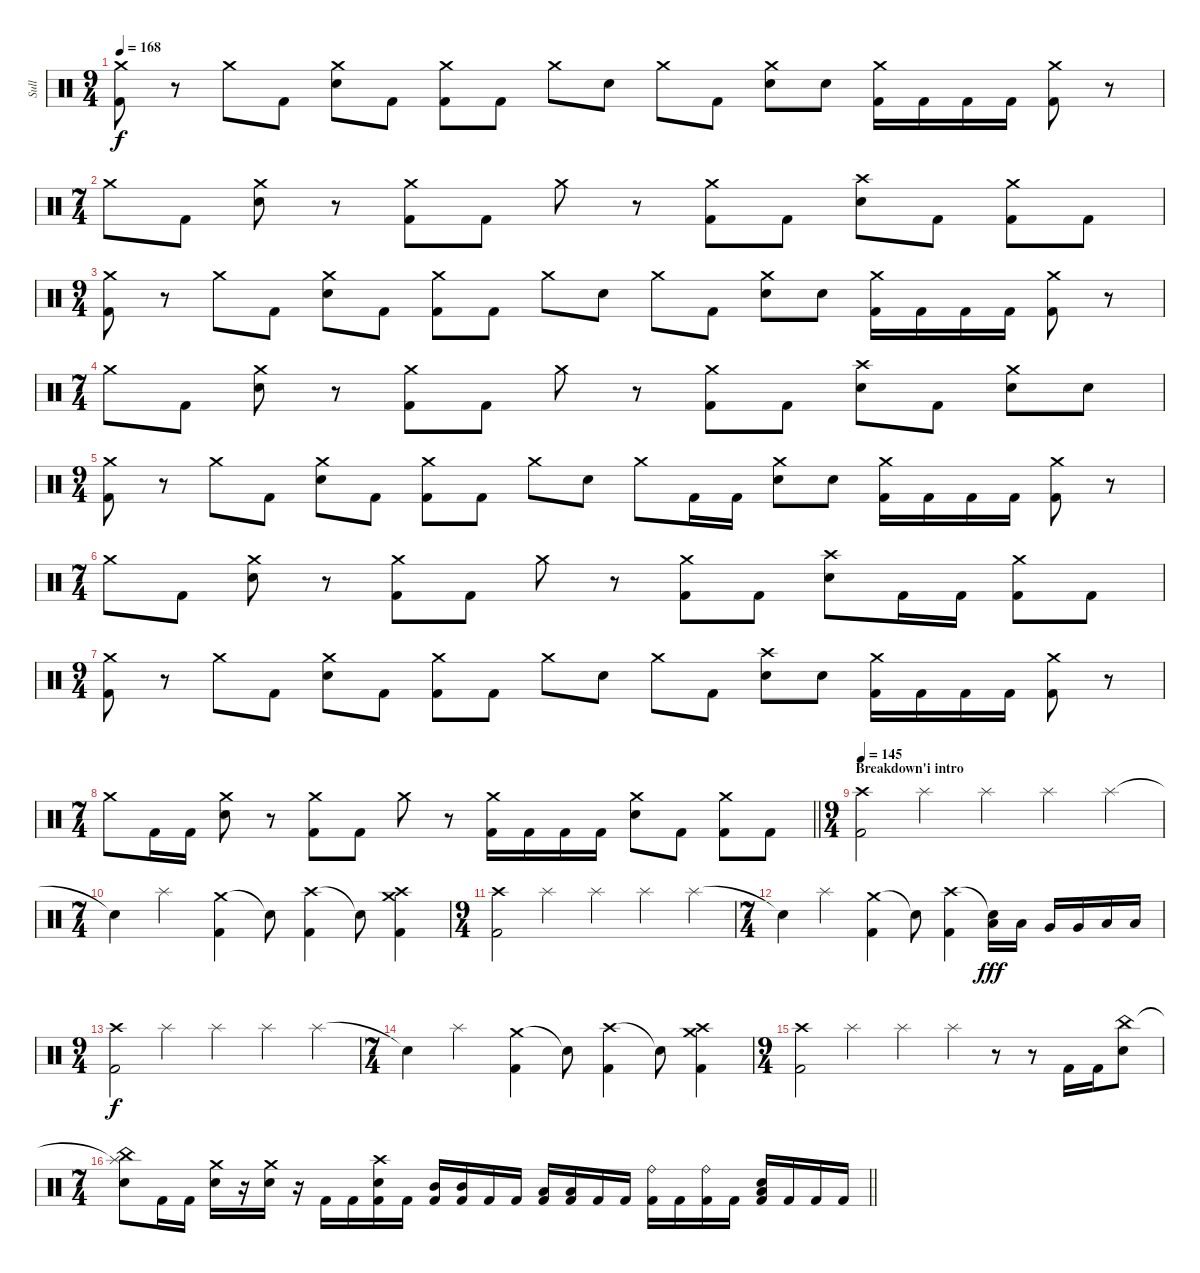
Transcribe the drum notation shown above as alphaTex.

\track ("Sull" "Sull") {instrument percussion}
\staff {score}
\articulation defaults
\ts (9 4)
\tempo 168
\clef neutral
\ks c
("Crash medium (hit)" "Kick (hit) 2").8{dy f} r.8 "Crash medium (hit)".8 "Kick (hit) 2".8 ("Crash medium (hit)" "Electric Snare (hit)").8 "Kick (hit) 2".8 ("Crash medium (hit)" "Kick (hit) 2").8 "Kick (hit) 2".8 "Crash medium (hit)".8 "Electric Snare (hit)".8 "Crash medium (hit)".8 "Kick (hit) 2".8 ("Crash medium (hit)" "Electric Snare (hit)").8 "Electric Snare (hit)".8 ("Crash medium (hit)" "Kick (hit) 2").16 "Kick (hit) 2".16 "Kick (hit) 2".16 "Kick (hit) 2".16 ("Crash medium (hit)" "Kick (hit) 2").8 r.8 |
\ts (7 4)
"Crash medium (hit)".8 "Kick (hit) 2".8 ("Crash medium (hit)" "Electric Snare (hit)").8 r.8 ("Crash medium (hit)" "Kick (hit) 2").8 "Kick (hit) 2".8 "Crash medium (hit)".8 r.8 ("Crash medium (hit)" "Kick (hit) 2").8 "Kick (hit) 2".8 ("Crash high (hit)" "Electric Snare (hit)").8 "Kick (hit) 2".8 ("Crash medium (hit)" "Kick (hit) 2").8 "Kick (hit) 2".8 |
\ts (9 4)
("Crash medium (hit)" "Kick (hit) 2").8 r.8 "Crash medium (hit)".8 "Kick (hit) 2".8 ("Crash medium (hit)" "Electric Snare (hit)").8 "Kick (hit) 2".8 ("Crash medium (hit)" "Kick (hit) 2").8 "Kick (hit) 2".8 "Crash medium (hit)".8 "Electric Snare (hit)".8 "Crash medium (hit)".8 "Kick (hit) 2".8 ("Crash medium (hit)" "Electric Snare (hit)").8 "Electric Snare (hit)".8 ("Crash medium (hit)" "Kick (hit) 2").16 "Kick (hit) 2".16 "Kick (hit) 2".16 "Kick (hit) 2".16 ("Crash medium (hit)" "Kick (hit) 2").8 r.8 |
\ts (7 4)
"Crash medium (hit)".8 "Kick (hit) 2".8 ("Crash medium (hit)" "Electric Snare (hit)").8 r.8 ("Crash medium (hit)" "Kick (hit) 2").8 "Kick (hit) 2".8 "Crash medium (hit)".8 r.8 ("Crash medium (hit)" "Kick (hit) 2").8 "Kick (hit) 2".8 ("Crash high (hit)" "Electric Snare (hit)").8 "Kick (hit) 2".8 ("Crash medium (hit)" "Electric Snare (hit)").8 "Electric Snare (hit)".8 |
\ts (9 4)
("Crash medium (hit)" "Kick (hit) 2").8 r.8 "Crash medium (hit)".8 "Kick (hit) 2".8 ("Crash medium (hit)" "Electric Snare (hit)").8 "Kick (hit) 2".8 ("Crash medium (hit)" "Kick (hit) 2").8 "Kick (hit) 2".8 "Crash medium (hit)".8 "Electric Snare (hit)".8 "Crash medium (hit)".8 "Kick (hit) 2".16 "Kick (hit) 2".16 ("Crash medium (hit)" "Electric Snare (hit)").8 "Electric Snare (hit)".8 ("Crash medium (hit)" "Kick (hit) 2").16 "Kick (hit) 2".16 "Kick (hit) 2".16 "Kick (hit) 2".16 ("Crash medium (hit)" "Kick (hit) 2").8 r.8 |
\ts (7 4)
"Crash medium (hit)".8 "Kick (hit) 2".8 ("Crash medium (hit)" "Electric Snare (hit)").8 r.8 ("Crash medium (hit)" "Kick (hit) 2").8 "Kick (hit) 2".8 "Crash medium (hit)".8 r.8 ("Crash medium (hit)" "Kick (hit) 2").8 "Kick (hit) 2".8 ("Crash high (hit)" "Electric Snare (hit)").8 "Kick (hit) 2".16 "Kick (hit) 2".16 ("Crash medium (hit)" "Kick (hit) 2").8 "Kick (hit) 2".8 |
\ts (9 4)
("Crash medium (hit)" "Kick (hit) 2").8 r.8 "Crash medium (hit)".8 "Kick (hit) 2".8 ("Crash medium (hit)" "Electric Snare (hit)").8 "Kick (hit) 2".8 ("Crash medium (hit)" "Kick (hit) 2").8 "Kick (hit) 2".8 "Crash medium (hit)".8 "Electric Snare (hit)".8 "Crash medium (hit)".8 "Kick (hit) 2".8 ("Crash high (hit)" "Electric Snare (hit)").8 "Electric Snare (hit)".8 ("Crash medium (hit)" "Kick (hit) 2").16 "Kick (hit) 2".16 "Kick (hit) 2".16 "Kick (hit) 2".16 ("Crash medium (hit)" "Kick (hit) 2").8 r.8 |
\ts (7 4)
\barLineRight lightlight "Crash medium (hit)".8 "Kick (hit) 2".16 "Kick (hit) 2".16
("Crash medium (hit)" "Electric Snare (hit)").8 r.8 ("Crash medium (hit)" "Kick (hit) 2").8 "Kick (hit) 2".8 "Crash medium (hit)".8 r.8 ("Crash medium (hit)" "Kick (hit) 2").16 "Kick (hit) 2".16 "Kick (hit) 2".16 "Kick (hit) 2".16 ("Crash medium (hit)" "Electric Snare (hit)").8 "Kick (hit) 2".8 ("Crash medium (hit)" "Kick (hit) 2").8 "Kick (hit) 2".8 |
\ts (9 4)
\section ("" "Breakdown'i intro")
\tempo 145
("Crash high (hit)" "Kick (hit) 2").2 "Splash (hit)".2 "Splash (hit)".2 "Splash (hit)".2 "Splash (hit)".4 |
\ts (7 4)
"Snare (hit)"{t}.4 "Splash (hit)".2 ("Crash medium (hit)" "Kick (hit) 2").4 "Snare (hit)"{t}.8 ("Crash high (hit)" "Kick (hit) 2").4 "Snare (hit)"{t}.8 ("Crash high (hit)" "Crash medium (hit)" "Kick (hit) 2").4 |
\ts (9 4)
("Crash high (hit)" "Kick (hit) 2").2 "Splash (hit)".2 "Splash (hit)".2 "Splash (hit)".2 "Splash (hit)".4 |
\ts (7 4)
"Snare (hit)"{t}.4 "Splash (hit)".2 ("Crash medium (hit)" "Kick (hit) 2").4 "Snare (hit)"{t}.8 ("Crash high (hit)" "Kick (hit) 2").4 ("Snare (hit)"{t} "Low Tom (hit)").16{dy fff} "Low Tom (hit)".16 "Very Low Tom (hit)".16 "Very Low Tom (hit)".16 "Low Floor Tom (hit)".16 "Low Floor Tom (hit)".16 |
\ts (9 4)
("Crash high (hit)" "Kick (hit) 2").2{dy f} "Splash (hit)".2 "Splash (hit)".2 "Splash (hit)".2 "Splash (hit)".4 |
\ts (7 4)
"Snare (hit)"{t}.4 "Splash (hit)".2 ("Crash medium (hit)" "Kick (hit) 2").4 "Snare (hit)"{t}.8 ("Crash high (hit)" "Kick (hit) 2").4 "Snare (hit)"{t}.8 ("Crash high (hit)" "Crash medium (hit)" "Kick (hit) 2").4 |
\ts (9 4)
("Crash high (hit)" "Kick (hit) 2").2 "Splash (hit)".2 "Splash (hit)".2 "Splash (hit)".4 r.8 r.8 "Kick (hit) 2".16 "Kick (hit) 2".16 ("China (hit)" "Electric Snare (hit)").8 |
\ts (7 4)
\barLineRight lightlight
("Splash (hit)"{t} "China (hit)" "Electric Snare (hit)").8 "Kick (hit) 2".16 "Kick (hit) 2".16 ("Crash medium (hit)" "Electric Snare (hit)").16 r.16 ("Crash medium (hit)" "Electric Snare (hit)").16 r.16 "Kick (hit) 2".16 "Kick (hit) 2".16 ("Crash high (hit)" "Electric Snare (hit)" "Kick (hit) 2").16 "Kick (hit) 2".16 ("Mid Tom (hit)" "Kick (hit) 2").16 ("Mid Tom (hit)" "Kick (hit) 2").16 "Kick (hit) 2".16 "Kick (hit) 2".16 ("Low Floor Tom (hit)" "Kick (hit) 2").16 ("Low Floor Tom (hit)" "Kick (hit) 2").16 "Kick (hit) 2".16 "Kick (hit) 2".16 ("Ride (bell)" "Kick (hit) 2").16 "Kick (hit) 2".16 ("Ride (bell)" "Kick (hit) 2").16 "Kick (hit) 2".16 ("Low Floor Tom (hit)" "Electric Snare (hit)" "Kick (hit) 2").16 "Kick (hit) 2".16 "Kick (hit) 2".16 "Kick (hit) 2".16
